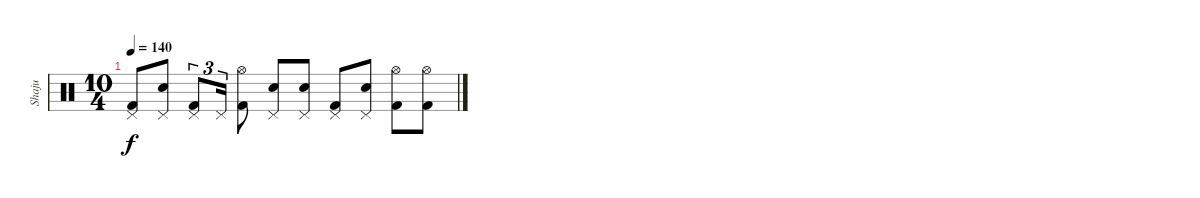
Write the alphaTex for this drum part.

\track ("Shaju" "Shaju") {instrument percussion}
\staff {score}
\articulation defaults
\ts (10 4)
\tempo 140
\clef neutral
\ks c
("Pedal Hi-Hat (hit)" "Kick (hit) 2").8{dy f} ("Pedal Hi-Hat (hit)" "Snare (hit) 2").8 ("Pedal Hi-Hat (hit)" "Kick (hit) 2").8{tu (3 2)} "Pedal Hi-Hat (hit)".16{tu (3 2)} ("Hi-Hat (open)" "Kick (hit) 2").8 ("Pedal Hi-Hat (hit)" "Snare (hit) 2").8 ("Pedal Hi-Hat (hit)" "Snare (hit) 2").8 ("Pedal Hi-Hat (hit)" "Kick (hit) 2").8 ("Pedal Hi-Hat (hit)" "Snare (hit) 2").8 ("Hi-Hat (open)" "Kick (hit) 2").8 ("Hi-Hat (open)" "Kick (hit) 2").8
